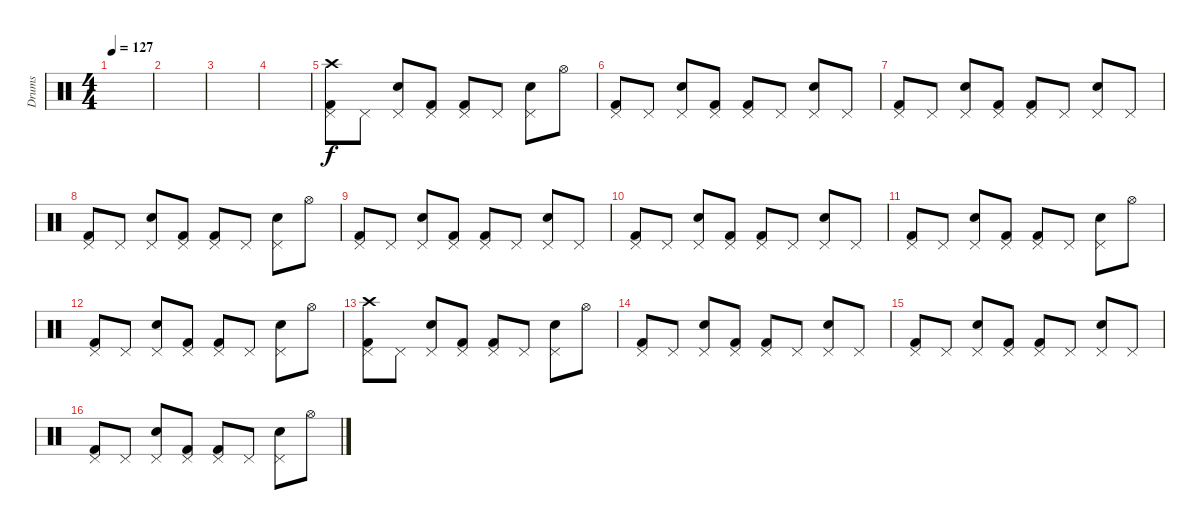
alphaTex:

\track ("Drums" "Drums") {instrument percussion}
\staff {score}
\articulation defaults
\ts (4 4)
\tempo 127
\clef neutral
\ks c
|
|
|
|
("Crash high (hit)" "Pedal Hi-Hat (hit)" "Kick (hit) 2").8 "Pedal Hi-Hat (hit)".8 ("Pedal Hi-Hat (hit)" "Snare (hit) 2").8 ("Pedal Hi-Hat (hit)" "Kick (hit) 2").8 ("Pedal Hi-Hat (hit)" "Kick (hit) 2").8 "Pedal Hi-Hat (hit)".8 ("Pedal Hi-Hat (hit)" "Snare (hit) 2").8 "Hi-Hat (open)".8 |
("Pedal Hi-Hat (hit)" "Kick (hit) 2").8 "Pedal Hi-Hat (hit)".8 ("Pedal Hi-Hat (hit)" "Snare (hit) 2").8 ("Pedal Hi-Hat (hit)" "Kick (hit) 2").8 ("Pedal Hi-Hat (hit)" "Kick (hit) 2").8 "Pedal Hi-Hat (hit)".8 ("Pedal Hi-Hat (hit)" "Snare (hit) 2").8 "Pedal Hi-Hat (hit)".8 |
("Pedal Hi-Hat (hit)" "Kick (hit) 2").8 "Pedal Hi-Hat (hit)".8 ("Pedal Hi-Hat (hit)" "Snare (hit) 2").8 ("Pedal Hi-Hat (hit)" "Kick (hit) 2").8 ("Pedal Hi-Hat (hit)" "Kick (hit) 2").8 "Pedal Hi-Hat (hit)".8 ("Pedal Hi-Hat (hit)" "Snare (hit) 2").8 "Pedal Hi-Hat (hit)".8 |
("Pedal Hi-Hat (hit)" "Kick (hit) 2").8 "Pedal Hi-Hat (hit)".8 ("Pedal Hi-Hat (hit)" "Snare (hit) 2").8 ("Pedal Hi-Hat (hit)" "Kick (hit) 2").8 ("Pedal Hi-Hat (hit)" "Kick (hit) 2").8 "Pedal Hi-Hat (hit)".8 ("Pedal Hi-Hat (hit)" "Snare (hit) 2").8 "Hi-Hat (open)".8 |
("Pedal Hi-Hat (hit)" "Kick (hit) 2").8 "Pedal Hi-Hat (hit)".8 ("Pedal Hi-Hat (hit)" "Snare (hit) 2").8 ("Pedal Hi-Hat (hit)" "Kick (hit) 2").8 ("Pedal Hi-Hat (hit)" "Kick (hit) 2").8 "Pedal Hi-Hat (hit)".8 ("Pedal Hi-Hat (hit)" "Snare (hit) 2").8 "Pedal Hi-Hat (hit)".8 |
("Pedal Hi-Hat (hit)" "Kick (hit) 2").8 "Pedal Hi-Hat (hit)".8 ("Pedal Hi-Hat (hit)" "Snare (hit) 2").8 ("Pedal Hi-Hat (hit)" "Kick (hit) 2").8 ("Pedal Hi-Hat (hit)" "Kick (hit) 2").8 "Pedal Hi-Hat (hit)".8 ("Pedal Hi-Hat (hit)" "Snare (hit) 2").8 "Pedal Hi-Hat (hit)".8 |
("Pedal Hi-Hat (hit)" "Kick (hit) 2").8 "Pedal Hi-Hat (hit)".8 ("Pedal Hi-Hat (hit)" "Snare (hit) 2").8 ("Pedal Hi-Hat (hit)" "Kick (hit) 2").8 ("Pedal Hi-Hat (hit)" "Kick (hit) 2").8 "Pedal Hi-Hat (hit)".8 ("Pedal Hi-Hat (hit)" "Snare (hit) 2").8 "Hi-Hat (open)".8 |
("Pedal Hi-Hat (hit)" "Kick (hit) 2").8 "Pedal Hi-Hat (hit)".8 ("Pedal Hi-Hat (hit)" "Snare (hit) 2").8 ("Pedal Hi-Hat (hit)" "Kick (hit) 2").8 ("Pedal Hi-Hat (hit)" "Kick (hit) 2").8 "Pedal Hi-Hat (hit)".8 ("Pedal Hi-Hat (hit)" "Snare (hit) 2").8 "Hi-Hat (open)".8 |
("Crash high (hit)" "Pedal Hi-Hat (hit)" "Kick (hit) 2").8 "Pedal Hi-Hat (hit)".8 ("Pedal Hi-Hat (hit)" "Snare (hit) 2").8 ("Pedal Hi-Hat (hit)" "Kick (hit) 2").8 ("Pedal Hi-Hat (hit)" "Kick (hit) 2").8 "Pedal Hi-Hat (hit)".8 ("Pedal Hi-Hat (hit)" "Snare (hit) 2").8 "Hi-Hat (open)".8 |
("Pedal Hi-Hat (hit)" "Kick (hit) 2").8 "Pedal Hi-Hat (hit)".8 ("Pedal Hi-Hat (hit)" "Snare (hit) 2").8 ("Pedal Hi-Hat (hit)" "Kick (hit) 2").8 ("Pedal Hi-Hat (hit)" "Kick (hit) 2").8 "Pedal Hi-Hat (hit)".8 ("Pedal Hi-Hat (hit)" "Snare (hit) 2").8 "Pedal Hi-Hat (hit)".8 |
("Pedal Hi-Hat (hit)" "Kick (hit) 2").8 "Pedal Hi-Hat (hit)".8 ("Pedal Hi-Hat (hit)" "Snare (hit) 2").8 ("Pedal Hi-Hat (hit)" "Kick (hit) 2").8 ("Pedal Hi-Hat (hit)" "Kick (hit) 2").8 "Pedal Hi-Hat (hit)".8 ("Pedal Hi-Hat (hit)" "Snare (hit) 2").8 "Pedal Hi-Hat (hit)".8 |
("Pedal Hi-Hat (hit)" "Kick (hit) 2").8 "Pedal Hi-Hat (hit)".8 ("Pedal Hi-Hat (hit)" "Snare (hit) 2").8 ("Pedal Hi-Hat (hit)" "Kick (hit) 2").8 ("Pedal Hi-Hat (hit)" "Kick (hit) 2").8 "Pedal Hi-Hat (hit)".8 ("Pedal Hi-Hat (hit)" "Snare (hit) 2").8 "Hi-Hat (open)".8
